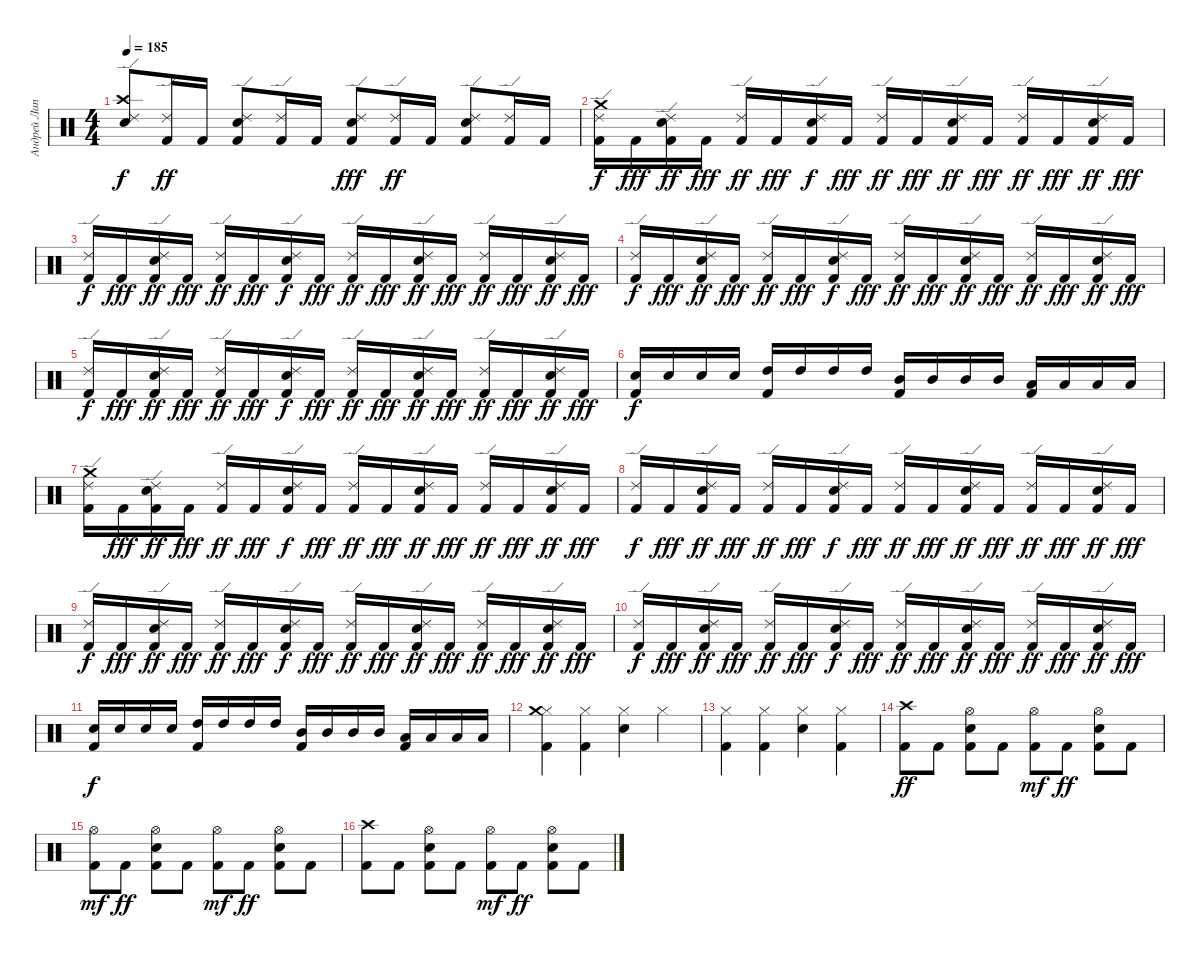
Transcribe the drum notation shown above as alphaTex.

\track ("Андрей Лаптев" "Андрей Лап") {instrument percussion}
\staff {score}
\articulation defaults
\ts (4 4)
\tempo 185
\clef neutral
\ks c
("Ride (edge) 2" "Crash high (hit)" "Electric Snare (hit)").8{dy f} ("Kick (hit) 2" "Ride (edge) 2").16{dy ff} "Kick (hit) 2".16 ("Kick (hit) 2" "Electric Snare (hit)" "Ride (edge) 2").8 ("Kick (hit) 2" "Ride (edge) 2").16 "Kick (hit) 2".16 ("Kick (hit) 2" "Ride (edge) 2" "Electric Snare (hit)").8{dy fff} ("Kick (hit) 2" "Ride (edge) 2").16{dy ff} "Kick (hit) 2".16 ("Ride (edge) 2" "Electric Snare (hit)" "Kick (hit) 2").8 ("Kick (hit) 2" "Ride (edge) 2").16 "Kick (hit) 2".16 |
("Kick (hit) 2" "Crash medium (hit)" "Ride (edge) 2").16{dy f} "Kick (hit) 2".16{dy fff} ("Kick (hit) 2" "Electric Snare (hit)" "Ride (edge) 2").16{dy ff} "Kick (hit) 2".16{dy fff} ("Kick (hit) 2" "Ride (edge) 2").16{dy ff} "Kick (hit) 2".16{dy fff} ("Kick (hit) 2" "Electric Snare (hit)" "Ride (edge) 2").16{dy f} "Kick (hit) 2".16{dy fff} ("Kick (hit) 2" "Ride (edge) 2").16{dy ff} "Kick (hit) 2".16{dy fff} ("Kick (hit) 2" "Electric Snare (hit)" "Ride (edge) 2").16{dy ff} "Kick (hit) 2".16{dy fff} ("Kick (hit) 2" "Ride (edge) 2").16{dy ff} "Kick (hit) 2".16{dy fff} ("Kick (hit) 2" "Electric Snare (hit)" "Ride (edge) 2").16{dy ff} "Kick (hit) 2".16{dy fff} |
("Kick (hit) 2" "Ride (edge) 2").16{dy f} "Kick (hit) 2".16{dy fff} ("Kick (hit) 2" "Electric Snare (hit)" "Ride (edge) 2").16{dy ff} "Kick (hit) 2".16{dy fff} ("Kick (hit) 2" "Ride (edge) 2").16{dy ff} "Kick (hit) 2".16{dy fff} ("Kick (hit) 2" "Electric Snare (hit)" "Ride (edge) 2").16{dy f} "Kick (hit) 2".16{dy fff} ("Kick (hit) 2" "Ride (edge) 2").16{dy ff} "Kick (hit) 2".16{dy fff} ("Kick (hit) 2" "Electric Snare (hit)" "Ride (edge) 2").16{dy ff} "Kick (hit) 2".16{dy fff} ("Kick (hit) 2" "Ride (edge) 2").16{dy ff} "Kick (hit) 2".16{dy fff} ("Kick (hit) 2" "Electric Snare (hit)" "Ride (edge) 2").16{dy ff} "Kick (hit) 2".16{dy fff} |
("Kick (hit) 2" "Ride (edge) 2").16{dy f} "Kick (hit) 2".16{dy fff} ("Kick (hit) 2" "Electric Snare (hit)" "Ride (edge) 2").16{dy ff} "Kick (hit) 2".16{dy fff} ("Kick (hit) 2" "Ride (edge) 2").16{dy ff} "Kick (hit) 2".16{dy fff} ("Kick (hit) 2" "Electric Snare (hit)" "Ride (edge) 2").16{dy f} "Kick (hit) 2".16{dy fff} ("Kick (hit) 2" "Ride (edge) 2").16{dy ff} "Kick (hit) 2".16{dy fff} ("Kick (hit) 2" "Electric Snare (hit)" "Ride (edge) 2").16{dy ff} "Kick (hit) 2".16{dy fff} ("Kick (hit) 2" "Ride (edge) 2").16{dy ff} "Kick (hit) 2".16{dy fff} ("Kick (hit) 2" "Electric Snare (hit)" "Ride (edge) 2").16{dy ff} "Kick (hit) 2".16{dy fff} |
("Kick (hit) 2" "Ride (edge) 2").16{dy f} "Kick (hit) 2".16{dy fff} ("Kick (hit) 2" "Electric Snare (hit)" "Ride (edge) 2").16{dy ff} "Kick (hit) 2".16{dy fff} ("Kick (hit) 2" "Ride (edge) 2").16{dy ff} "Kick (hit) 2".16{dy fff} ("Kick (hit) 2" "Electric Snare (hit)" "Ride (edge) 2").16{dy f} "Kick (hit) 2".16{dy fff} ("Kick (hit) 2" "Ride (edge) 2").16{dy ff} "Kick (hit) 2".16{dy fff} ("Kick (hit) 2" "Electric Snare (hit)" "Ride (edge) 2").16{dy ff} "Kick (hit) 2".16{dy fff} ("Kick (hit) 2" "Ride (edge) 2").16{dy ff} "Kick (hit) 2".16{dy fff} ("Kick (hit) 2" "Electric Snare (hit)" "Ride (edge) 2").16{dy ff} "Kick (hit) 2".16{dy fff} |
("Electric Snare (hit)" "Kick (hit) 2").16{dy f} "Electric Snare (hit)".16 "Electric Snare (hit)".16 "Electric Snare (hit)".16 ("High Tom (hit)" "Kick (hit) 2").16 "High Tom (hit)".16 "High Tom (hit)".16 "High Tom (hit)".16 ("Mid Tom (hit)" "Kick (hit) 2").16 "Mid Tom (hit)".16 "Mid Tom (hit)".16 "Mid Tom (hit)".16 ("Low Tom (hit)" "Kick (hit) 2").16 "Low Tom (hit)".16 "Low Tom (hit)".16 "Low Tom (hit)".16 |
("Kick (hit) 2" "Crash medium (hit)" "Ride (edge) 2").16 "Kick (hit) 2".16{dy fff} ("Kick (hit) 2" "Electric Snare (hit)" "Ride (edge) 2").16{dy ff} "Kick (hit) 2".16{dy fff} ("Kick (hit) 2" "Ride (edge) 2").16{dy ff} "Kick (hit) 2".16{dy fff} ("Kick (hit) 2" "Electric Snare (hit)" "Ride (edge) 2").16{dy f} "Kick (hit) 2".16{dy fff} ("Kick (hit) 2" "Ride (edge) 2").16{dy ff} "Kick (hit) 2".16{dy fff} ("Kick (hit) 2" "Electric Snare (hit)" "Ride (edge) 2").16{dy ff} "Kick (hit) 2".16{dy fff} ("Kick (hit) 2" "Ride (edge) 2").16{dy ff} "Kick (hit) 2".16{dy fff} ("Kick (hit) 2" "Electric Snare (hit)" "Ride (edge) 2").16{dy ff} "Kick (hit) 2".16{dy fff} |
("Kick (hit) 2" "Ride (edge) 2").16{dy f} "Kick (hit) 2".16{dy fff} ("Kick (hit) 2" "Electric Snare (hit)" "Ride (edge) 2").16{dy ff} "Kick (hit) 2".16{dy fff} ("Kick (hit) 2" "Ride (edge) 2").16{dy ff} "Kick (hit) 2".16{dy fff} ("Kick (hit) 2" "Electric Snare (hit)" "Ride (edge) 2").16{dy f} "Kick (hit) 2".16{dy fff} ("Kick (hit) 2" "Ride (edge) 2").16{dy ff} "Kick (hit) 2".16{dy fff} ("Kick (hit) 2" "Electric Snare (hit)" "Ride (edge) 2").16{dy ff} "Kick (hit) 2".16{dy fff} ("Kick (hit) 2" "Ride (edge) 2").16{dy ff} "Kick (hit) 2".16{dy fff} ("Kick (hit) 2" "Electric Snare (hit)" "Ride (edge) 2").16{dy ff} "Kick (hit) 2".16{dy fff} |
("Kick (hit) 2" "Ride (edge) 2").16{dy f} "Kick (hit) 2".16{dy fff} ("Kick (hit) 2" "Electric Snare (hit)" "Ride (edge) 2").16{dy ff} "Kick (hit) 2".16{dy fff} ("Kick (hit) 2" "Ride (edge) 2").16{dy ff} "Kick (hit) 2".16{dy fff} ("Kick (hit) 2" "Electric Snare (hit)" "Ride (edge) 2").16{dy f} "Kick (hit) 2".16{dy fff} ("Kick (hit) 2" "Ride (edge) 2").16{dy ff} "Kick (hit) 2".16{dy fff} ("Kick (hit) 2" "Electric Snare (hit)" "Ride (edge) 2").16{dy ff} "Kick (hit) 2".16{dy fff} ("Kick (hit) 2" "Ride (edge) 2").16{dy ff} "Kick (hit) 2".16{dy fff} ("Kick (hit) 2" "Electric Snare (hit)" "Ride (edge) 2").16{dy ff} "Kick (hit) 2".16{dy fff} |
("Kick (hit) 2" "Ride (edge) 2").16{dy f} "Kick (hit) 2".16{dy fff} ("Kick (hit) 2" "Electric Snare (hit)" "Ride (edge) 2").16{dy ff} "Kick (hit) 2".16{dy fff} ("Kick (hit) 2" "Ride (edge) 2").16{dy ff} "Kick (hit) 2".16{dy fff} ("Kick (hit) 2" "Electric Snare (hit)" "Ride (edge) 2").16{dy f} "Kick (hit) 2".16{dy fff} ("Kick (hit) 2" "Ride (edge) 2").16{dy ff} "Kick (hit) 2".16{dy fff} ("Kick (hit) 2" "Electric Snare (hit)" "Ride (edge) 2").16{dy ff} "Kick (hit) 2".16{dy fff} ("Kick (hit) 2" "Ride (edge) 2").16{dy ff} "Kick (hit) 2".16{dy fff} ("Kick (hit) 2" "Electric Snare (hit)" "Ride (edge) 2").16{dy ff} "Kick (hit) 2".16{dy fff} |
("Electric Snare (hit)" "Kick (hit) 2").16{dy f} "Electric Snare (hit)".16 "Electric Snare (hit)".16 "Electric Snare (hit)".16 ("High Tom (hit)" "Kick (hit) 2").16 "High Tom (hit)".16 "High Tom (hit)".16 "High Tom (hit)".16 ("Mid Tom (hit)" "Kick (hit) 2").16 "Mid Tom (hit)".16 "Mid Tom (hit)".16 "Mid Tom (hit)".16 ("Low Tom (hit)" "Kick (hit) 2").16 "Low Tom (hit)".16 "Low Tom (hit)".16 "Low Tom (hit)".16 |
("Hi-Hat (closed)" "Crash medium (hit)" "Kick (hit) 2").4 ("Hi-Hat (closed)" "Kick (hit) 2").4 ("Hi-Hat (closed)" "Electric Snare (hit)").4 "Hi-Hat (closed)".4 |
("Hi-Hat (closed)" "Kick (hit) 2").4 ("Hi-Hat (closed)" "Kick (hit) 2").4 ("Hi-Hat (closed)" "Electric Snare (hit)").4 ("Hi-Hat (closed)" "Kick (hit) 2").4 |
("Crash high (hit)" "Kick (hit) 2").8{dy ff} "Kick (hit) 2".8 ("Hi-Hat (open)" "Electric Snare (hit)" "Kick (hit) 2").8 "Kick (hit) 2".8 ("Kick (hit) 2" "Hi-Hat (open)").8{dy mf} "Kick (hit) 2".8{dy ff} ("Electric Snare (hit)" "Hi-Hat (open)" "Kick (hit) 2").8 "Kick (hit) 2".8 |
("Kick (hit) 2" "Hi-Hat (open)").8{dy mf} "Kick (hit) 2".8{dy ff} ("Electric Snare (hit)" "Hi-Hat (open)" "Kick (hit) 2").8 "Kick (hit) 2".8 ("Kick (hit) 2" "Hi-Hat (open)").8{dy mf} "Kick (hit) 2".8{dy ff} ("Hi-Hat (open)" "Electric Snare (hit)" "Kick (hit) 2").8 "Kick (hit) 2".8 |
("Crash high (hit)" "Kick (hit) 2").8 "Kick (hit) 2".8 ("Hi-Hat (open)" "Electric Snare (hit)" "Kick (hit) 2").8 "Kick (hit) 2".8 ("Kick (hit) 2" "Hi-Hat (open)").8{dy mf} "Kick (hit) 2".8{dy ff} ("Electric Snare (hit)" "Hi-Hat (open)" "Kick (hit) 2").8 "Kick (hit) 2".8
